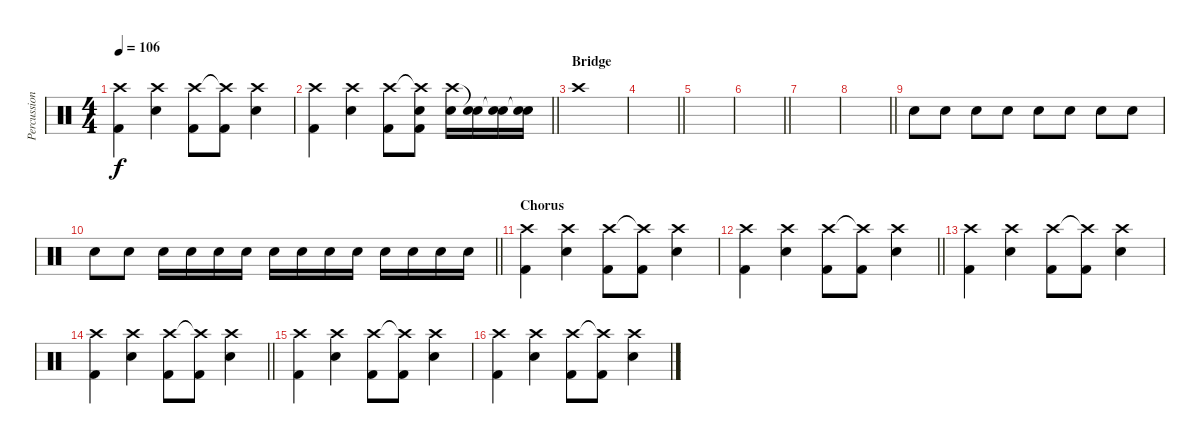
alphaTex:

\track ("Percussion" "Percussion") {instrument percussion}
\staff {score}
\articulation defaults
\ts (4 4)
\tempo 106
\clef neutral
\ks c
("Crash high (hit)" "Kick (hit) 2").4{dy f} ("Crash high (hit)" "Electric Snare (hit)").4 ("Crash high (hit)" "Kick (hit) 2").8 ("Crash high (hit)"{t} "Kick (hit) 2").8 ("Crash high (hit)" "Electric Snare (hit)").4 |
\barLineRight lightlight
("Crash high (hit)" "Kick (hit) 2").4 ("Crash high (hit)" "Electric Snare (hit)").4 ("Crash high (hit)" "Kick (hit) 2").8 ("Crash high (hit)"{t} "Electric Snare (hit)" "Kick (hit) 2").8 ("Crash high (hit)" "Electric Snare (hit)").16 ("Snare (hit)"{t} "Electric Snare (hit)").16 ("Snare (hit)"{t} "Electric Snare (hit)").16 ("Snare (hit)"{t} "Electric Snare (hit)").16 |
\section ("" "Bridge")
"Crash high (hit)".1 |
\barLineRight lightlight
|
|
\barLineRight lightlight
|
|
\barLineRight lightlight
|
"Snare (hit) 2".8{volume 13} "Snare (hit) 2".8 "Snare (hit) 2".8 "Snare (hit) 2".8 "Snare (hit) 2".8 "Snare (hit) 2".8 "Snare (hit) 2".8 "Snare (hit) 2".8 |
\barLineRight lightlight "Snare (hit) 2".8 "Snare (hit) 2".8 "Snare (hit) 2".16 "Snare (hit) 2".16 "Snare (hit) 2".16 "Snare (hit) 2".16 "Snare (hit) 2".16 "Snare (hit) 2".16 "Snare (hit) 2".16 "Snare (hit) 2".16 "Snare (hit) 2".16 "Snare (hit) 2".16 "Snare (hit) 2".16 "Snare (hit) 2".16
|
\section ("" "Chorus")
("Crash high (hit)" "Kick (hit) 2").4 ("Crash high (hit)" "Electric Snare (hit)").4 ("Crash high (hit)" "Kick (hit) 2").8 ("Crash high (hit)"{t} "Kick (hit) 2").8 ("Crash high (hit)" "Electric Snare (hit)").4 |
\barLineRight lightlight
("Crash high (hit)" "Kick (hit) 2").4 ("Crash high (hit)" "Electric Snare (hit)").4 ("Crash high (hit)" "Kick (hit) 2").8 ("Crash high (hit)"{t} "Kick (hit) 2").8 ("Crash high (hit)" "Electric Snare (hit)").4 |
("Crash high (hit)" "Kick (hit) 2").4 ("Crash high (hit)" "Electric Snare (hit)").4 ("Crash high (hit)" "Kick (hit) 2").8 ("Crash high (hit)"{t} "Kick (hit) 2").8 ("Crash high (hit)" "Electric Snare (hit)").4 |
\barLineRight lightlight
("Crash high (hit)" "Kick (hit) 2").4 ("Crash high (hit)" "Electric Snare (hit)").4 ("Crash high (hit)" "Kick (hit) 2").8 ("Crash high (hit)"{t} "Kick (hit) 2").8 ("Crash high (hit)" "Electric Snare (hit)").4 |
("Crash high (hit)" "Kick (hit) 2").4 ("Crash high (hit)" "Electric Snare (hit)").4 ("Crash high (hit)" "Kick (hit) 2").8 ("Crash high (hit)"{t} "Kick (hit) 2").8 ("Crash high (hit)" "Electric Snare (hit)").4 |
("Crash high (hit)" "Kick (hit) 2").4 ("Crash high (hit)" "Electric Snare (hit)").4 ("Crash high (hit)" "Kick (hit) 2").8 ("Crash high (hit)"{t} "Kick (hit) 2").8 ("Crash high (hit)" "Electric Snare (hit)").4
